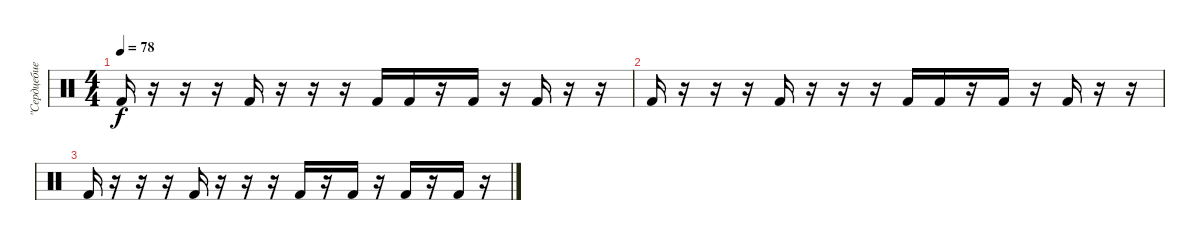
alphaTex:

\track ("\"Сердцебиение\" песни" "\"Сердцебие") {instrument percussion}
\staff {score}
\articulation defaults
\ts (4 4)
\tempo 78
\clef neutral
\ks c "Kick (hit) 2".16{dy f}
r.16 r.16 r.16 "Kick (hit) 2".16 r.16 r.16 r.16 "Kick (hit) 2".16 "Kick (hit) 2".16 r.16 "Kick (hit) 2".16 r.16 "Kick (hit) 2".16 r.16 r.16 |
"Kick (hit) 2".16 r.16 r.16 r.16 "Kick (hit) 2".16 r.16 r.16 r.16 "Kick (hit) 2".16 "Kick (hit) 2".16 r.16 "Kick (hit) 2".16 r.16 "Kick (hit) 2".16 r.16 r.16 |
"Kick (hit) 2".16 r.16 r.16 r.16 "Kick (hit) 2".16 r.16 r.16 r.16 "Kick (hit) 2".16 r.16 "Kick (hit) 2".16 r.16 "Kick (hit) 2".16 r.16 "Kick (hit) 2".16 r.16
